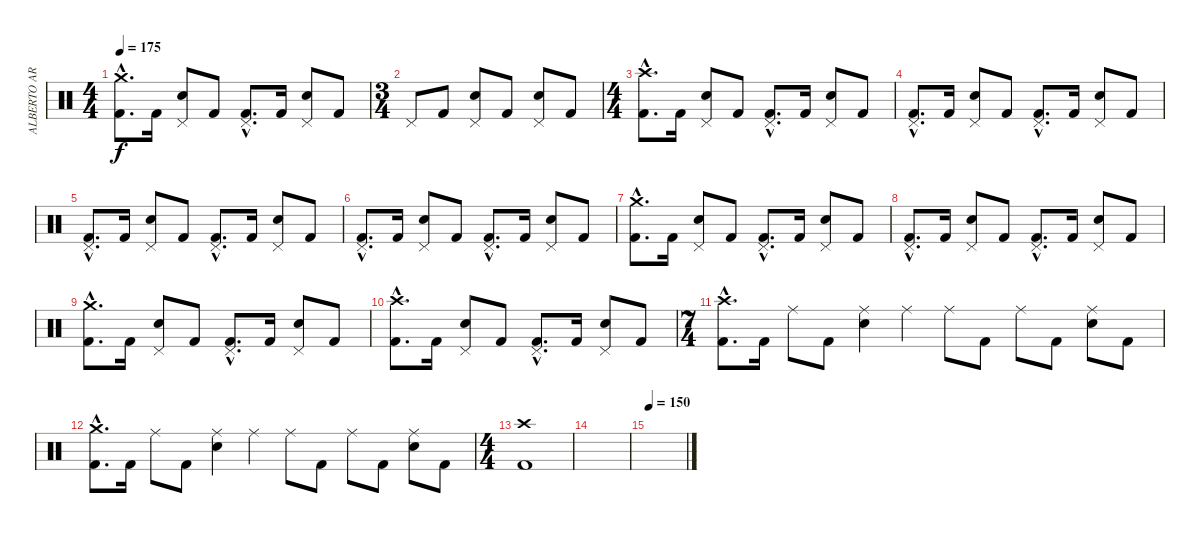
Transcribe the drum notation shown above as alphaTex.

\track ("ALBERTO ARDINES" "ALBERTO AR") {instrument percussion}
\staff {score}
\articulation defaults
\ts (4 4)
\tempo 175
\clef neutral
\ks c
("Crash medium (hit)"{hac} "Kick (hit) 2"{hac}).8{d dy f} "Kick (hit) 2".16 ("Pedal Hi-Hat (hit)" "Electric Snare (hit)").8 "Kick (hit) 2".8 ("Pedal Hi-Hat (hit)"{hac} "Kick (hit) 2"{hac}).8{d} "Kick (hit) 2".16 ("Pedal Hi-Hat (hit)" "Electric Snare (hit)").8 "Kick (hit) 2".8 |
\ts (3 4)
"Pedal Hi-Hat (hit)".8 "Kick (hit) 2".8 ("Pedal Hi-Hat (hit)" "Electric Snare (hit)").8 "Kick (hit) 2".8 ("Pedal Hi-Hat (hit)" "Electric Snare (hit)").8 "Kick (hit) 2".8 |
\ts (4 4)
("Crash high (hit)"{hac} "Kick (hit) 2"{hac}).8{d} "Kick (hit) 2".16 ("Pedal Hi-Hat (hit)" "Electric Snare (hit)").8 "Kick (hit) 2".8 ("Pedal Hi-Hat (hit)"{hac} "Kick (hit) 2"{hac}).8{d} "Kick (hit) 2".16 ("Pedal Hi-Hat (hit)" "Electric Snare (hit)").8 "Kick (hit) 2".8 |
("Pedal Hi-Hat (hit)"{hac} "Kick (hit) 2"{hac}).8{d} "Kick (hit) 2".16 ("Pedal Hi-Hat (hit)" "Electric Snare (hit)").8 "Kick (hit) 2".8 ("Pedal Hi-Hat (hit)"{hac} "Kick (hit) 2"{hac}).8{d} "Kick (hit) 2".16 ("Pedal Hi-Hat (hit)" "Electric Snare (hit)").8 "Kick (hit) 2".8 |
("Pedal Hi-Hat (hit)"{hac} "Kick (hit) 2"{hac}).8{d} "Kick (hit) 2".16 ("Pedal Hi-Hat (hit)" "Electric Snare (hit)").8 "Kick (hit) 2".8 ("Pedal Hi-Hat (hit)"{hac} "Kick (hit) 2"{hac}).8{d} "Kick (hit) 2".16 ("Pedal Hi-Hat (hit)" "Electric Snare (hit)").8 "Kick (hit) 2".8 |
("Pedal Hi-Hat (hit)"{hac} "Kick (hit) 2"{hac}).8{d} "Kick (hit) 2".16 ("Pedal Hi-Hat (hit)" "Electric Snare (hit)").8 "Kick (hit) 2".8 ("Pedal Hi-Hat (hit)"{hac} "Kick (hit) 2"{hac}).8{d} "Kick (hit) 2".16 ("Pedal Hi-Hat (hit)" "Electric Snare (hit)").8 "Kick (hit) 2".8 |
("Crash medium (hit)"{hac} "Kick (hit) 2"{hac}).8{d} "Kick (hit) 2".16 ("Pedal Hi-Hat (hit)" "Electric Snare (hit)").8 "Kick (hit) 2".8 ("Pedal Hi-Hat (hit)"{hac} "Kick (hit) 2"{hac}).8{d} "Kick (hit) 2".16 ("Pedal Hi-Hat (hit)" "Electric Snare (hit)").8 "Kick (hit) 2".8 |
("Pedal Hi-Hat (hit)"{hac} "Kick (hit) 2"{hac}).8{d} "Kick (hit) 2".16 ("Pedal Hi-Hat (hit)" "Electric Snare (hit)").8 "Kick (hit) 2".8 ("Pedal Hi-Hat (hit)"{hac} "Kick (hit) 2"{hac}).8{d} "Kick (hit) 2".16 ("Pedal Hi-Hat (hit)" "Electric Snare (hit)").8 "Kick (hit) 2".8 |
("Crash medium (hit)"{hac} "Kick (hit) 2"{hac}).8{d} "Kick (hit) 2".16 ("Pedal Hi-Hat (hit)" "Electric Snare (hit)").8 "Kick (hit) 2".8 ("Pedal Hi-Hat (hit)"{hac} "Kick (hit) 2"{hac}).8{d} "Kick (hit) 2".16 ("Pedal Hi-Hat (hit)" "Electric Snare (hit)").8 "Kick (hit) 2".8 |
("Crash high (hit)"{hac} "Kick (hit) 2"{hac}).8{d} "Kick (hit) 2".16 ("Pedal Hi-Hat (hit)" "Electric Snare (hit)").8 "Kick (hit) 2".8 ("Pedal Hi-Hat (hit)"{hac} "Kick (hit) 2"{hac}).8{d} "Kick (hit) 2".16 ("Pedal Hi-Hat (hit)" "Electric Snare (hit)").8 "Kick (hit) 2".8 |
\ts (7 4)
("Crash high (hit)"{hac} "Kick (hit) 2"{hac}).8{d} "Kick (hit) 2".16 "Ride (middle)".8 "Kick (hit) 2".8 ("Ride (middle)" "Electric Snare (hit)").4 "Ride (middle)".4 "Ride (middle)".8 "Kick (hit) 2".8 "Ride (middle)".8 "Kick (hit) 2".8 ("Ride (middle)" "Electric Snare (hit)").8 "Kick (hit) 2".8 |
("Crash medium (hit)"{hac} "Kick (hit) 2"{hac}).8{d} "Kick (hit) 2".16 "Ride (middle)".8 "Kick (hit) 2".8 ("Ride (middle)" "Electric Snare (hit)").4 "Ride (middle)".4 "Ride (middle)".8 "Kick (hit) 2".8 "Ride (middle)".8 "Kick (hit) 2".8 ("Ride (middle)" "Electric Snare (hit)").8 "Kick (hit) 2".8 |
\ts (4 4)
("Crash high (hit)" "Kick (hit) 2").1 |
|
\tempo 150
